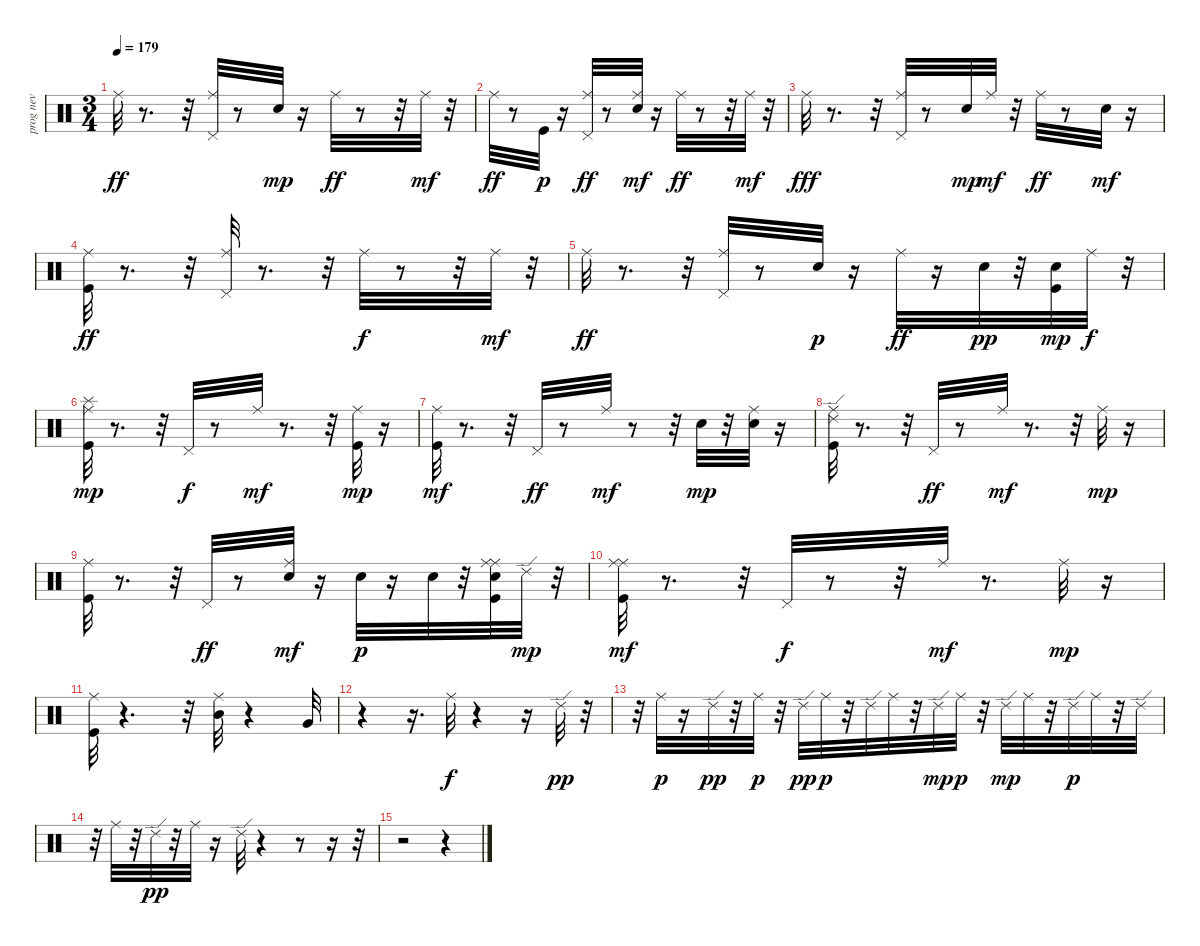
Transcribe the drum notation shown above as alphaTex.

\track ("prog nev" "prog nev") {instrument percussion}
\staff {score}
\articulation defaults
\ts (3 4)
\tempo 179
\clef neutral
\ks c "Ride (middle)".32{dy ff}
r.8{d} r.32 ("Pedal Hi-Hat (hit)" "Ride (middle)").32 r.8 "Snare (hit) 2".32{dy mp} r.16 "Ride (middle)".32{dy ff} r.8 r.32 "Ride (middle)".32{dy mf} r.32 |
"Ride (middle)".32{dy ff} r.8 "Kick (hit)".32{dy p} r.16 ("Pedal Hi-Hat (hit)" "Ride (middle)").32{dy ff} r.8 ("Hand Clap (hit)" "Ride (middle)").32{dy mf} r.16 "Ride (middle)".32{dy ff} r.8 r.32 "Ride (middle)".32{dy mf} r.32 |
"Ride (middle)".32{dy fff} r.8{d} r.32 ("Pedal Hi-Hat (hit)" "Ride (middle)").32 r.8 "Snare (hit) 2".32{dy mp} "Ride (middle)".32{dy mf} r.32 "Ride (middle)".32{dy ff} r.8 "Snare (hit) 2".32{dy mf} r.16 |
("Kick (hit)" "Ride (middle)").32{dy ff} r.8{d} r.32 ("Pedal Hi-Hat (hit)" "Ride (middle)").32 r.8{d} r.32 "Ride (middle)".32{dy f} r.8 r.32 "Ride (middle)".32{dy mf} r.32 |
"Ride (middle)".32{dy ff} r.8{d} r.32 ("Pedal Hi-Hat (hit)" "Ride (middle)").32 r.8 "Hand Clap (hit)".32{dy p} r.16 "Ride (middle)".32{dy ff} r.16 "Snare (hit) 2".32{dy pp} r.32 ("Kick (hit)" "Snare (hit) 2").32{dy mp} "Ride (middle)".32{dy f} r.32 |
("Kick (hit)" "Ride (middle)" "Splash (hit)").32{dy mp} r.8{d} r.32 "Pedal Hi-Hat (hit)".32{dy f} r.8 "Ride (middle)".32{dy mf} r.8{d} r.32 ("Kick (hit)" "Ride (middle)").32{dy mp} r.16 |
("Kick (hit)" "Ride (middle)").32{dy mf} r.8{d} r.32 "Pedal Hi-Hat (hit)".32{dy ff} r.8 "Ride (middle)".32{dy mf} r.8 r.32 "Snare (hit) 2".32{dy mp} r.32 ("Snare (hit) 2" "Ride (middle)").32 r.16 |
("Kick (hit)" "Ride (middle)" "Ride (edge) 2").32 r.8{d} r.32 "Pedal Hi-Hat (hit)".32{dy ff} r.8 "Ride (middle)".32{dy mf} r.8{d} r.32 "Ride (middle)".32{dy mp} r.16 |
("Kick (hit)" "Ride (middle)").32 r.8{d} r.32 "Pedal Hi-Hat (hit)".32{dy ff} r.8 ("Hand Clap (hit)" "Ride (middle)").32{dy mf} r.16 "Snare (hit) 2".32{dy p} r.16 "Snare (hit) 2".32 r.32 ("Ride (middle)" "Kick (hit)" "Snare (hit) 2" "Ride (middle)").32 "Ride (edge) 2".32{dy mp} r.32 |
("Ride (middle)" "Kick (hit)" "Ride (middle)").32{dy mf} r.8{d} r.32 "Pedal Hi-Hat (hit)".32{dy f} r.8 r.32 "Ride (middle)".32{dy mf} r.8{d} "Ride (middle)".32{dy mp} r.16 |
("Kick (hit)" "Ride (middle)").32 r.4{d} r.32 ("Ride (middle)" "Mid Tom (hit)").32 r.4 "Very Low Tom (hit)".32 |
r.4 r.16{d} "Ride (middle)".32{dy f} r.4 r.16 "Ride (edge) 2".32{dy pp} r.32 |
r.32 "Ride (middle)".32{dy p} r.16 "Ride (edge) 2".32{dy pp} r.32 "Ride (middle)".32{dy p} r.32 "Ride (edge) 2".32{dy pp} "Ride (middle)".32{dy p} r.32 "Ride (edge) 2".32 "Ride (middle)".32 r.32 "Ride (edge) 2".32{dy mp} "Ride (middle)".32{dy p} r.32 "Ride (edge) 2".32{dy mp} "Ride (middle)".32 r.32 "Ride (edge) 2".32{dy p} "Ride (middle)".32 r.32 "Ride (edge) 2".32 |
r.32 "Ride (middle)".32 r.32 "Ride (edge) 2".32{dy pp} r.32 "Ride (middle)".32 r.16 "Ride (edge) 2".32 r.4 r.8 r.16 r.32 |
r.2 r.4
